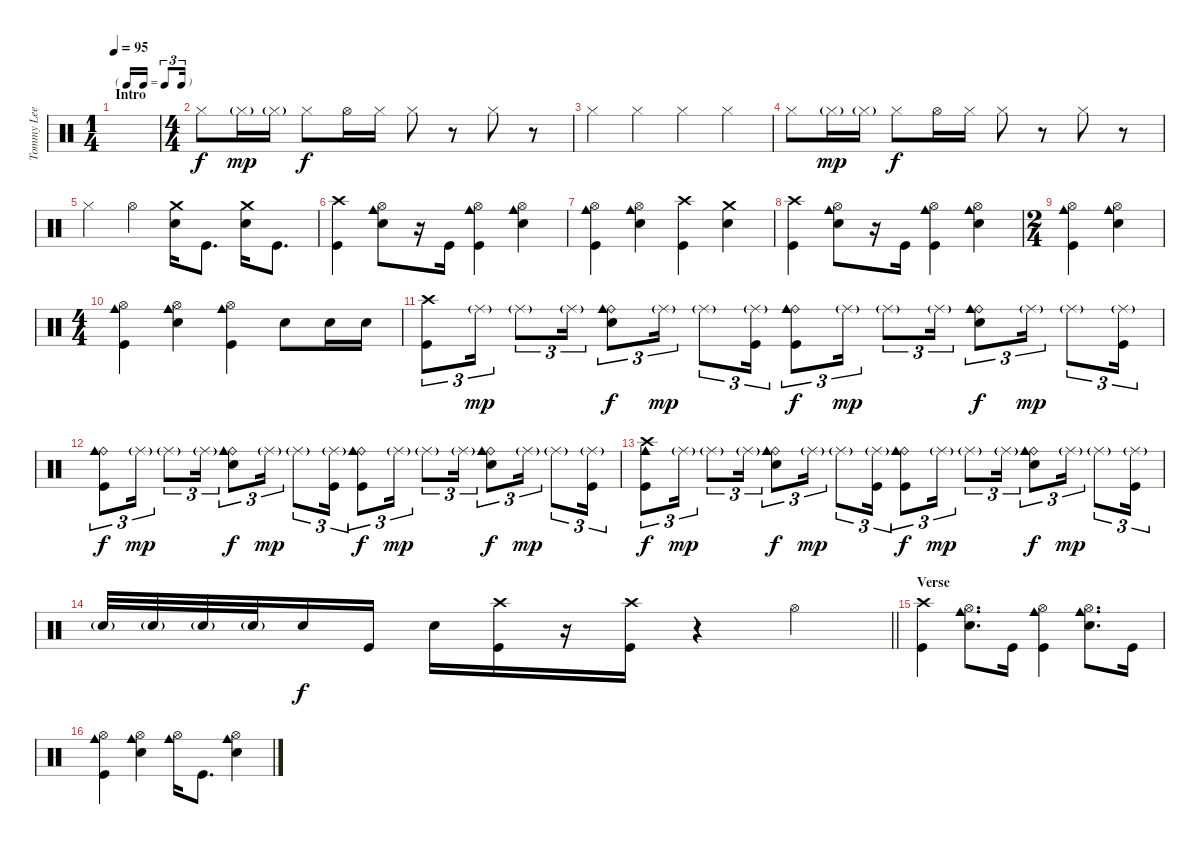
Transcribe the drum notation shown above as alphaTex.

\track ("Tommy Lee" "Tommy Lee") {instrument percussion}
\staff {score}
\articulation defaults
\ts (1 4)
\tf triplet16th
\section ("" "Intro")
\tempo 95
\clef neutral
\ks c
|
\ts (4 4)
"Hi-Hat (closed)".8 "Hi-Hat (closed)"{g}.16{dy mp} "Hi-Hat (closed)"{g}.16 "Hi-Hat (closed)".8{dy f} "Hi-Hat (open)".16 "Hi-Hat (closed)".16 "Hi-Hat (closed)".8 r.8 "Hi-Hat (closed)".8 r.8 |
"Hi-Hat (closed)".4 "Hi-Hat (closed)".4 "Hi-Hat (closed)".4 "Hi-Hat (closed)".4 |
"Hi-Hat (closed)".8 "Hi-Hat (closed)"{g}.16{dy mp} "Hi-Hat (closed)"{g}.16 "Hi-Hat (closed)".8{dy f} "Hi-Hat (open)".16 "Hi-Hat (closed)".16 "Hi-Hat (closed)".8 r.8 "Hi-Hat (closed)".8 r.8 |
"Hi-Hat (closed)".4 "Hi-Hat (open)".4 ("Crash medium (hit)" "Snare (hit) 2").16 "Kick (hit)".8{d} ("Crash medium (hit)" "Snare (hit) 2").16 "Kick (hit)".8{d} |
("Crash high (hit)" "Kick (hit)").4 ("Hi-Hat (open)" "Cowbell medium (hit)" "Snare (hit) 2").8 r.16 "Kick (hit)".16 ("Hi-Hat (open)" "Cowbell medium (hit)" "Kick (hit)").4 ("Hi-Hat (open)" "Cowbell medium (hit)" "Snare (hit) 2").4 |
("Hi-Hat (open)" "Cowbell medium (hit)" "Kick (hit)").4 ("Hi-Hat (open)" "Cowbell medium (hit)" "Snare (hit) 2").4 ("Crash high (hit)" "Kick (hit)").4 ("Crash medium (hit)" "Snare (hit) 2").4 |
("Crash high (hit)" "Kick (hit)").4 ("Hi-Hat (open)" "Cowbell medium (hit)" "Snare (hit) 2").8 r.16 "Kick (hit)".16 ("Hi-Hat (open)" "Cowbell medium (hit)" "Kick (hit)").4 ("Hi-Hat (open)" "Cowbell medium (hit)" "Snare (hit) 2").4 |
\ts (2 4)
("Hi-Hat (open)" "Cowbell medium (hit)" "Kick (hit)").4 ("Hi-Hat (open)" "Cowbell medium (hit)" "Snare (hit) 2").4 |
\ts (4 4)
("Hi-Hat (open)" "Cowbell medium (hit)" "Kick (hit)").4 ("Hi-Hat (open)" "Cowbell medium (hit)" "Snare (hit) 2").4 ("Hi-Hat (open)" "Cowbell medium (hit)" "Kick (hit)").4 "Snare (hit) 2".8 "Snare (hit) 2".16 "Snare (hit) 2".16 |
("Crash high (hit)" "Kick (hit)").8{tu (3 2)} "Ride (middle)"{g}.16{tu (3 2) dy mp} "Ride (middle)"{g}.8{tu (3 2)} "Ride (middle)"{g}.16{tu (3 2)} ("Ride (bell)" "Cowbell medium (hit)" "Snare (hit) 2").8{tu (3 2) dy f} "Ride (middle)"{g}.16{tu (3 2) dy mp} "Ride (middle)"{g}.8{tu (3 2)} ("Ride (middle)"{g} "Kick (hit)").16{tu (3 2)} ("Ride (bell)" "Cowbell medium (hit)" "Kick (hit)").8{tu (3 2) dy f} "Ride (middle)"{g}.16{tu (3 2) dy mp} "Ride (middle)"{g}.8{tu (3 2)} "Ride (middle)"{g}.16{tu (3 2)} ("Ride (bell)" "Cowbell medium (hit)" "Snare (hit) 2").8{tu (3 2) dy f} "Ride (middle)"{g}.16{tu (3 2) dy mp} "Ride (middle)"{g}.8{tu (3 2)} ("Ride (middle)"{g} "Kick (hit)").16{tu (3 2)} |
("Ride (bell)" "Cowbell medium (hit)" "Kick (hit)").8{tu (3 2) dy f} "Ride (middle)"{g}.16{tu (3 2) dy mp} "Ride (middle)"{g}.8{tu (3 2)} "Ride (middle)"{g}.16{tu (3 2)} ("Ride (bell)" "Cowbell medium (hit)" "Snare (hit) 2").8{tu (3 2) dy f} "Ride (middle)"{g}.16{tu (3 2) dy mp} "Ride (middle)"{g}.8{tu (3 2)} ("Ride (middle)"{g} "Kick (hit)").16{tu (3 2)} ("Ride (bell)" "Cowbell medium (hit)" "Kick (hit)").8{tu (3 2) dy f} "Ride (middle)"{g}.16{tu (3 2) dy mp} "Ride (middle)"{g}.8{tu (3 2)} "Ride (middle)"{g}.16{tu (3 2)} ("Ride (bell)" "Cowbell medium (hit)" "Snare (hit) 2").8{tu (3 2) dy f} "Ride (middle)"{g}.16{tu (3 2) dy mp} "Ride (middle)"{g}.8{tu (3 2)} ("Ride (middle)"{g} "Kick (hit)").16{tu (3 2)} |
("Crash high (hit)" "Cowbell medium (hit)" "Kick (hit)").8{tu (3 2) dy f} "Ride (middle)"{g}.16{tu (3 2) dy mp} "Ride (middle)"{g}.8{tu (3 2)} "Ride (middle)"{g}.16{tu (3 2)} ("Ride (bell)" "Cowbell medium (hit)" "Snare (hit) 2").8{tu (3 2) dy f} "Ride (middle)"{g}.16{tu (3 2) dy mp} "Ride (middle)"{g}.8{tu (3 2)} ("Ride (middle)"{g} "Kick (hit)").16{tu (3 2)} ("Ride (bell)" "Cowbell medium (hit)" "Kick (hit)").8{tu (3 2) dy f} "Ride (middle)"{g}.16{tu (3 2) dy mp} "Ride (middle)"{g}.8{tu (3 2)} "Ride (middle)"{g}.16{tu (3 2)} ("Ride (bell)" "Cowbell medium (hit)" "Snare (hit) 2").8{tu (3 2) dy f} "Ride (middle)"{g}.16{tu (3 2) dy mp} "Ride (middle)"{g}.8{tu (3 2)} ("Ride (middle)"{g} "Kick (hit)").16{tu (3 2)} |
\barLineRight lightlight "Snare (hit) 2"{g}.32 "Snare (hit) 2"{g}.32 "Snare (hit) 2"{g}.32 "Snare (hit) 2"{g}.32 "Snare (hit) 2".16{dy f} "Kick (hit)".16 "Snare (hit) 2".16
("Crash high (hit)" "Kick (hit)").16 r.16 ("Crash high (hit)" "Kick (hit)").16 r.4 "Hi-Hat (open)".4 |
\section ("" "Verse")
("Crash high (hit)" "Kick (hit)").4 ("Hi-Hat (open)" "Cowbell medium (hit)" "Snare (hit) 2").8{d} "Kick (hit)".16 ("Hi-Hat (open)" "Cowbell medium (hit)" "Kick (hit)").4 ("Hi-Hat (open)" "Cowbell medium (hit)" "Snare (hit) 2").8{d} "Kick (hit)".16 |
("Hi-Hat (open)" "Cowbell medium (hit)" "Kick (hit)").4 ("Hi-Hat (open)" "Cowbell medium (hit)" "Snare (hit) 2").4 ("Hi-Hat (open)" "Cowbell medium (hit)").16 "Kick (hit)".8{d} ("Hi-Hat (open)" "Cowbell medium (hit)" "Snare (hit) 2").4
